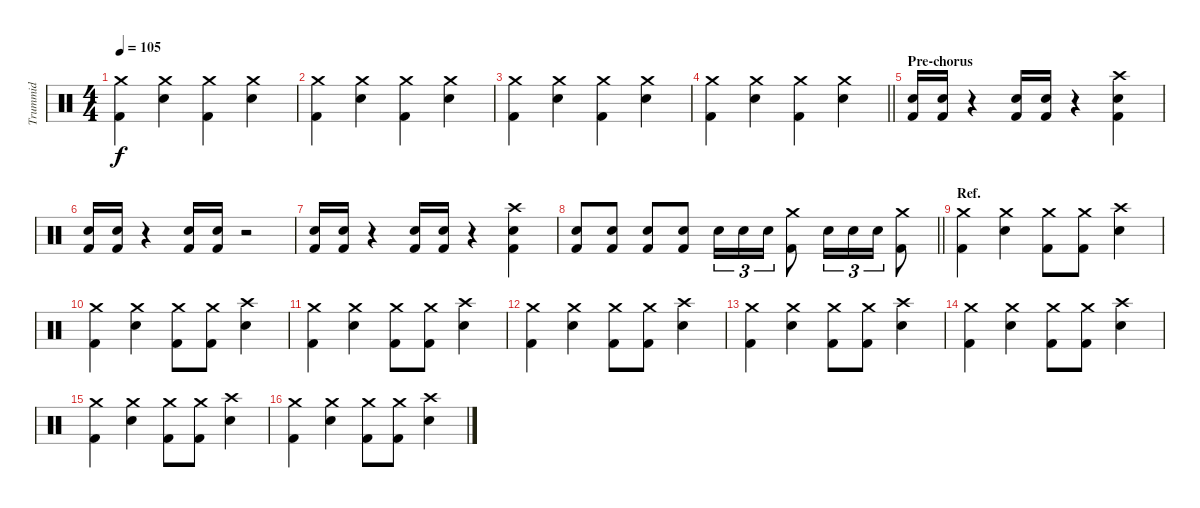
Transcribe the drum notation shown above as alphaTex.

\track ("Trummid" "Trummid") {instrument percussion}
\staff {score}
\articulation defaults
\ts (4 4)
\tempo 105
\clef neutral
\ks c
("Crash medium (hit)" "Kick (hit) 2").4{dy f} ("Crash medium (hit)" "Electric Snare (hit)").4 ("Crash medium (hit)" "Kick (hit) 2").4 ("Crash medium (hit)" "Electric Snare (hit)").4 |
("Crash medium (hit)" "Kick (hit) 2").4 ("Crash medium (hit)" "Electric Snare (hit)").4 ("Crash medium (hit)" "Kick (hit) 2").4 ("Crash medium (hit)" "Electric Snare (hit)").4 |
("Crash medium (hit)" "Kick (hit) 2").4 ("Crash medium (hit)" "Electric Snare (hit)").4 ("Crash medium (hit)" "Kick (hit) 2").4 ("Crash medium (hit)" "Electric Snare (hit)").4 |
\barLineRight lightlight
("Crash medium (hit)" "Kick (hit) 2").4 ("Crash medium (hit)" "Electric Snare (hit)").4 ("Crash medium (hit)" "Kick (hit) 2").4 ("Crash medium (hit)" "Electric Snare (hit)").4 |
\section ("" "Pre-chorus")
("Electric Snare (hit)" "Kick (hit) 2").16 ("Electric Snare (hit)" "Kick (hit) 2").16 r.4 ("Electric Snare (hit)" "Kick (hit) 2").16 ("Electric Snare (hit)" "Kick (hit) 2").16 r.4 ("Crash high (hit)" "Electric Snare (hit)" "Kick (hit) 2").4 |
("Electric Snare (hit)" "Kick (hit) 2").16 ("Electric Snare (hit)" "Kick (hit) 2").16 r.4 ("Electric Snare (hit)" "Kick (hit) 2").16 ("Electric Snare (hit)" "Kick (hit) 2").16 r.2 |
("Electric Snare (hit)" "Kick (hit) 2").16 ("Electric Snare (hit)" "Kick (hit) 2").16 r.4 ("Electric Snare (hit)" "Kick (hit) 2").16 ("Electric Snare (hit)" "Kick (hit) 2").16 r.4 ("Crash high (hit)" "Electric Snare (hit)" "Kick (hit) 2").4 |
\barLineRight lightlight
("Electric Snare (hit)" "Kick (hit) 2").8 ("Electric Snare (hit)" "Kick (hit) 2").8 ("Electric Snare (hit)" "Kick (hit) 2").8 ("Electric Snare (hit)" "Kick (hit) 2").8 "Electric Snare (hit)".16{tu (3 2)} "Electric Snare (hit)".16{tu (3 2)} "Electric Snare (hit)".16{tu (3 2)} ("Crash medium (hit)" "Kick (hit) 2").8 "Electric Snare (hit)".16{tu (3 2)} "Electric Snare (hit)".16{tu (3 2)} "Electric Snare (hit)".16{tu (3 2)} ("Crash medium (hit)" "Kick (hit) 2").8 |
\section ("" "Ref.")
("Crash medium (hit)" "Kick (hit) 2").4 ("Crash medium (hit)" "Electric Snare (hit)").4 ("Crash medium (hit)" "Kick (hit) 2").8 ("Crash medium (hit)" "Kick (hit) 2").8 ("Crash high (hit)" "Electric Snare (hit)").4 |
("Crash medium (hit)" "Kick (hit) 2").4 ("Crash medium (hit)" "Electric Snare (hit)").4 ("Crash medium (hit)" "Kick (hit) 2").8 ("Crash medium (hit)" "Kick (hit) 2").8 ("Crash high (hit)" "Electric Snare (hit)").4 |
("Crash medium (hit)" "Kick (hit) 2").4 ("Crash medium (hit)" "Electric Snare (hit)").4 ("Crash medium (hit)" "Kick (hit) 2").8 ("Crash medium (hit)" "Kick (hit) 2").8 ("Crash high (hit)" "Electric Snare (hit)").4 |
("Crash medium (hit)" "Kick (hit) 2").4 ("Crash medium (hit)" "Electric Snare (hit)").4 ("Crash medium (hit)" "Kick (hit) 2").8 ("Crash medium (hit)" "Kick (hit) 2").8 ("Crash high (hit)" "Electric Snare (hit)").4 |
("Crash medium (hit)" "Kick (hit) 2").4 ("Crash medium (hit)" "Electric Snare (hit)").4 ("Crash medium (hit)" "Kick (hit) 2").8 ("Crash medium (hit)" "Kick (hit) 2").8 ("Crash high (hit)" "Electric Snare (hit)").4 |
("Crash medium (hit)" "Kick (hit) 2").4 ("Crash medium (hit)" "Electric Snare (hit)").4 ("Crash medium (hit)" "Kick (hit) 2").8 ("Crash medium (hit)" "Kick (hit) 2").8 ("Crash high (hit)" "Electric Snare (hit)").4 |
("Crash medium (hit)" "Kick (hit) 2").4 ("Crash medium (hit)" "Electric Snare (hit)").4 ("Crash medium (hit)" "Kick (hit) 2").8 ("Crash medium (hit)" "Kick (hit) 2").8 ("Crash high (hit)" "Electric Snare (hit)").4 |
("Crash medium (hit)" "Kick (hit) 2").4 ("Crash medium (hit)" "Electric Snare (hit)").4 ("Crash medium (hit)" "Kick (hit) 2").8 ("Crash medium (hit)" "Kick (hit) 2").8 ("Crash high (hit)" "Electric Snare (hit)").4
